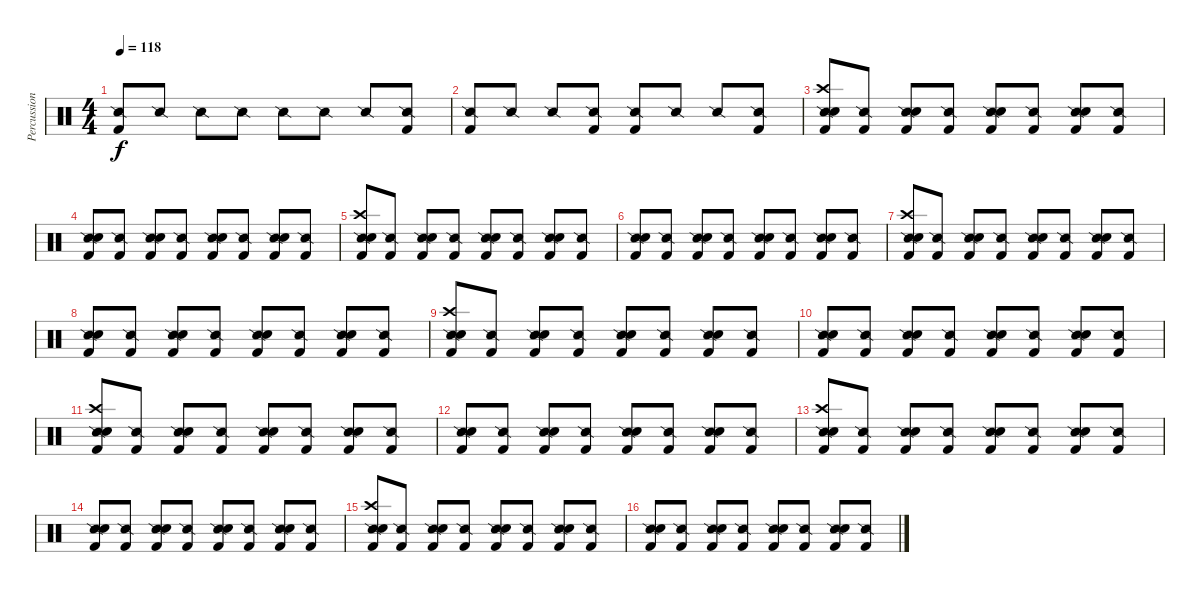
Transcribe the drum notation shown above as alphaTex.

\track ("Percussion" "Percussion") {instrument percussion}
\staff {score}
\articulation defaults
\ts (4 4)
\tempo 118
\clef neutral
\ks c
("Snare (side stick) 2" "Kick (hit) 2").8{dy f} "Snare (side stick) 2".8 "Snare (side stick) 2".8 "Snare (side stick) 2".8 "Snare (side stick) 2".8 "Snare (side stick) 2".8 "Snare (side stick) 2".8 ("Snare (side stick) 2" "Kick (hit) 2").8 |
("Snare (side stick) 2" "Kick (hit) 2").8 "Snare (side stick) 2".8 "Snare (side stick) 2".8 ("Snare (side stick) 2" "Kick (hit) 2").8 ("Snare (side stick) 2" "Kick (hit) 2").8 "Snare (side stick) 2".8 "Snare (side stick) 2".8 ("Snare (side stick) 2" "Kick (hit) 2").8 |
("Snare (side stick) 2" "Crash high (hit)" "Electric Snare (hit)" "Kick (hit) 2").8 ("Snare (side stick) 2" "Kick (hit) 2").8 ("Snare (side stick) 2" "Electric Snare (hit)" "Kick (hit) 2").8 ("Snare (side stick) 2" "Kick (hit) 2").8 ("Snare (side stick) 2" "Electric Snare (hit)" "Kick (hit) 2").8 ("Snare (side stick) 2" "Kick (hit) 2").8 ("Snare (side stick) 2" "Electric Snare (hit)" "Kick (hit) 2").8 ("Snare (side stick) 2" "Kick (hit) 2").8 |
("Snare (side stick) 2" "Electric Snare (hit)" "Kick (hit) 2").8 ("Snare (side stick) 2" "Kick (hit) 2").8 ("Snare (side stick) 2" "Electric Snare (hit)" "Kick (hit) 2").8 ("Snare (side stick) 2" "Kick (hit) 2").8 ("Snare (side stick) 2" "Electric Snare (hit)" "Kick (hit) 2").8 ("Snare (side stick) 2" "Kick (hit) 2").8 ("Snare (side stick) 2" "Electric Snare (hit)" "Kick (hit) 2").8 ("Snare (side stick) 2" "Kick (hit) 2").8 |
("Snare (side stick) 2" "Crash high (hit)" "Electric Snare (hit)" "Kick (hit) 2").8 ("Snare (side stick) 2" "Kick (hit) 2").8 ("Snare (side stick) 2" "Electric Snare (hit)" "Kick (hit) 2").8 ("Snare (side stick) 2" "Kick (hit) 2").8 ("Snare (side stick) 2" "Electric Snare (hit)" "Kick (hit) 2").8 ("Snare (side stick) 2" "Kick (hit) 2").8 ("Snare (side stick) 2" "Electric Snare (hit)" "Kick (hit) 2").8 ("Snare (side stick) 2" "Kick (hit) 2").8 |
("Snare (side stick) 2" "Electric Snare (hit)" "Kick (hit) 2").8 ("Snare (side stick) 2" "Kick (hit) 2").8 ("Snare (side stick) 2" "Electric Snare (hit)" "Kick (hit) 2").8 ("Snare (side stick) 2" "Kick (hit) 2").8 ("Snare (side stick) 2" "Electric Snare (hit)" "Kick (hit) 2").8 ("Snare (side stick) 2" "Kick (hit) 2").8 ("Snare (side stick) 2" "Electric Snare (hit)" "Kick (hit) 2").8 ("Snare (side stick) 2" "Kick (hit) 2").8 |
("Snare (side stick) 2" "Crash high (hit)" "Electric Snare (hit)" "Kick (hit) 2").8 ("Snare (side stick) 2" "Kick (hit) 2").8 ("Snare (side stick) 2" "Electric Snare (hit)" "Kick (hit) 2").8 ("Snare (side stick) 2" "Kick (hit) 2").8 ("Snare (side stick) 2" "Electric Snare (hit)" "Kick (hit) 2").8 ("Snare (side stick) 2" "Kick (hit) 2").8 ("Snare (side stick) 2" "Electric Snare (hit)" "Kick (hit) 2").8 ("Snare (side stick) 2" "Kick (hit) 2").8 |
("Snare (side stick) 2" "Electric Snare (hit)" "Kick (hit) 2").8 ("Snare (side stick) 2" "Kick (hit) 2").8 ("Snare (side stick) 2" "Electric Snare (hit)" "Kick (hit) 2").8 ("Snare (side stick) 2" "Kick (hit) 2").8 ("Snare (side stick) 2" "Electric Snare (hit)" "Kick (hit) 2").8 ("Snare (side stick) 2" "Kick (hit) 2").8 ("Snare (side stick) 2" "Electric Snare (hit)" "Kick (hit) 2").8 ("Snare (side stick) 2" "Kick (hit) 2").8 |
("Snare (side stick) 2" "Crash high (hit)" "Electric Snare (hit)" "Kick (hit) 2").8 ("Snare (side stick) 2" "Kick (hit) 2").8 ("Snare (side stick) 2" "Electric Snare (hit)" "Kick (hit) 2").8 ("Snare (side stick) 2" "Kick (hit) 2").8 ("Snare (side stick) 2" "Electric Snare (hit)" "Kick (hit) 2").8 ("Snare (side stick) 2" "Kick (hit) 2").8 ("Snare (side stick) 2" "Electric Snare (hit)" "Kick (hit) 2").8 ("Snare (side stick) 2" "Kick (hit) 2").8 |
("Snare (side stick) 2" "Electric Snare (hit)" "Kick (hit) 2").8 ("Snare (side stick) 2" "Kick (hit) 2").8 ("Snare (side stick) 2" "Electric Snare (hit)" "Kick (hit) 2").8 ("Snare (side stick) 2" "Kick (hit) 2").8 ("Snare (side stick) 2" "Electric Snare (hit)" "Kick (hit) 2").8 ("Snare (side stick) 2" "Kick (hit) 2").8 ("Snare (side stick) 2" "Electric Snare (hit)" "Kick (hit) 2").8 ("Snare (side stick) 2" "Kick (hit) 2").8 |
("Snare (side stick) 2" "Crash high (hit)" "Electric Snare (hit)" "Kick (hit) 2").8 ("Snare (side stick) 2" "Kick (hit) 2").8 ("Snare (side stick) 2" "Electric Snare (hit)" "Kick (hit) 2").8 ("Snare (side stick) 2" "Kick (hit) 2").8 ("Snare (side stick) 2" "Electric Snare (hit)" "Kick (hit) 2").8 ("Snare (side stick) 2" "Kick (hit) 2").8 ("Snare (side stick) 2" "Electric Snare (hit)" "Kick (hit) 2").8 ("Snare (side stick) 2" "Kick (hit) 2").8 |
("Snare (side stick) 2" "Electric Snare (hit)" "Kick (hit) 2").8 ("Snare (side stick) 2" "Kick (hit) 2").8 ("Snare (side stick) 2" "Electric Snare (hit)" "Kick (hit) 2").8 ("Snare (side stick) 2" "Kick (hit) 2").8 ("Snare (side stick) 2" "Electric Snare (hit)" "Kick (hit) 2").8 ("Snare (side stick) 2" "Kick (hit) 2").8 ("Snare (side stick) 2" "Electric Snare (hit)" "Kick (hit) 2").8 ("Snare (side stick) 2" "Kick (hit) 2").8 |
("Snare (side stick) 2" "Crash high (hit)" "Electric Snare (hit)" "Kick (hit) 2").8 ("Snare (side stick) 2" "Kick (hit) 2").8 ("Snare (side stick) 2" "Electric Snare (hit)" "Kick (hit) 2").8 ("Snare (side stick) 2" "Kick (hit) 2").8 ("Snare (side stick) 2" "Electric Snare (hit)" "Kick (hit) 2").8 ("Snare (side stick) 2" "Kick (hit) 2").8 ("Snare (side stick) 2" "Electric Snare (hit)" "Kick (hit) 2").8 ("Snare (side stick) 2" "Kick (hit) 2").8 |
("Snare (side stick) 2" "Electric Snare (hit)" "Kick (hit) 2").8 ("Snare (side stick) 2" "Kick (hit) 2").8 ("Snare (side stick) 2" "Electric Snare (hit)" "Kick (hit) 2").8 ("Snare (side stick) 2" "Kick (hit) 2").8 ("Snare (side stick) 2" "Electric Snare (hit)" "Kick (hit) 2").8 ("Snare (side stick) 2" "Kick (hit) 2").8 ("Snare (side stick) 2" "Electric Snare (hit)" "Kick (hit) 2").8 ("Snare (side stick) 2" "Kick (hit) 2").8 |
("Snare (side stick) 2" "Crash high (hit)" "Electric Snare (hit)" "Kick (hit) 2").8 ("Snare (side stick) 2" "Kick (hit) 2").8 ("Snare (side stick) 2" "Electric Snare (hit)" "Kick (hit) 2").8 ("Snare (side stick) 2" "Kick (hit) 2").8 ("Snare (side stick) 2" "Electric Snare (hit)" "Kick (hit) 2").8 ("Snare (side stick) 2" "Kick (hit) 2").8 ("Snare (side stick) 2" "Electric Snare (hit)" "Kick (hit) 2").8 ("Snare (side stick) 2" "Kick (hit) 2").8 |
("Snare (side stick) 2" "Electric Snare (hit)" "Kick (hit) 2").8 ("Snare (side stick) 2" "Kick (hit) 2").8 ("Snare (side stick) 2" "Electric Snare (hit)" "Kick (hit) 2").8 ("Snare (side stick) 2" "Kick (hit) 2").8 ("Snare (side stick) 2" "Electric Snare (hit)" "Kick (hit) 2").8 ("Snare (side stick) 2" "Kick (hit) 2").8 ("Snare (side stick) 2" "Electric Snare (hit)" "Kick (hit) 2").8 ("Snare (side stick) 2" "Kick (hit) 2").8
